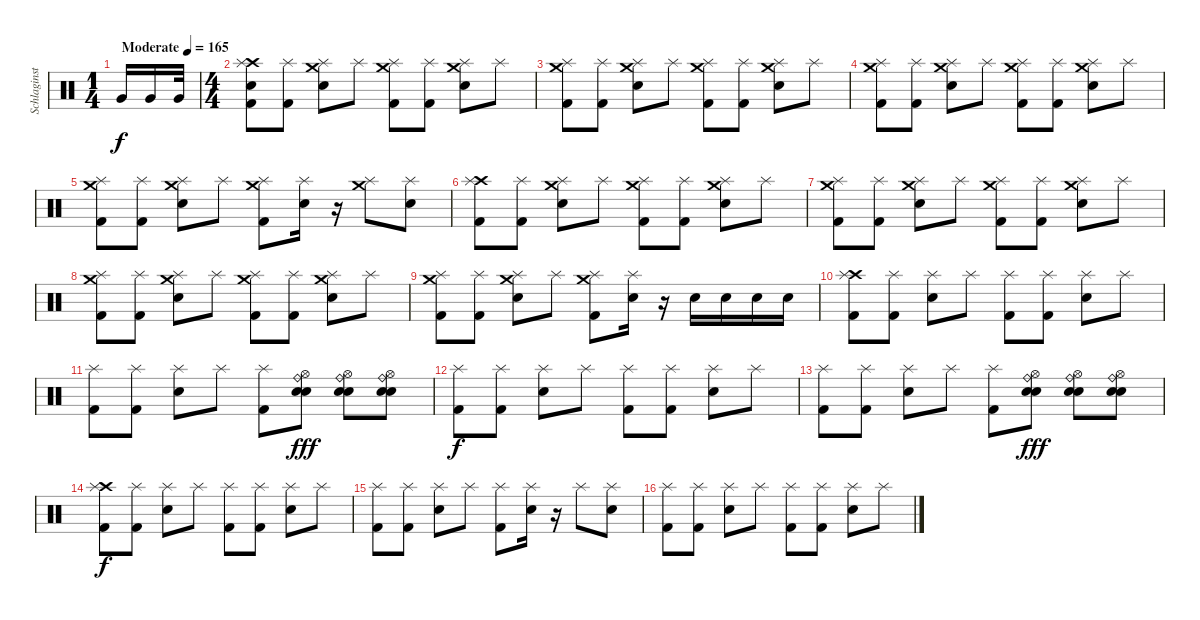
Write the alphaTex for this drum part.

\track ("Schlaginstrumente - Auswahl" "Schlaginst") {instrument percussion}
\staff {score}
\articulation defaults
\ts (1 4)
\tempo (165 "Moderate")
\clef neutral
\ks c "Very Low Tom (hit)".16{dy f} "Very Low Tom (hit)".16 "Very Low Tom (hit)".32
|
\ts (4 4)
("Crash high (hit)" "Splash (hit)" "Snare (hit)" "Kick (hit) 2").8 ("Splash (hit)" "Kick (hit) 2").8 ("Crash medium (hit)" "Splash (hit)" "Electric Snare (hit)").8 "Splash (hit)".8 ("Crash medium (hit)" "Splash (hit)" "Kick (hit) 2").8 ("Splash (hit)" "Kick (hit) 2").8 ("Crash medium (hit)" "Splash (hit)" "Electric Snare (hit)").8 "Splash (hit)".8 |
("Crash medium (hit)" "Splash (hit)" "Kick (hit) 2").8 ("Splash (hit)" "Kick (hit) 2").8 ("Crash medium (hit)" "Splash (hit)" "Electric Snare (hit)").8 "Splash (hit)".8 ("Crash medium (hit)" "Splash (hit)" "Kick (hit) 2").8 ("Splash (hit)" "Kick (hit) 2").8 ("Crash medium (hit)" "Splash (hit)" "Electric Snare (hit)").8 "Splash (hit)".8 |
("Crash medium (hit)" "Splash (hit)" "Kick (hit) 2").8 ("Splash (hit)" "Kick (hit) 2").8 ("Crash medium (hit)" "Splash (hit)" "Electric Snare (hit)").8 "Splash (hit)".8 ("Crash medium (hit)" "Splash (hit)" "Kick (hit) 2").8 ("Splash (hit)" "Kick (hit) 2").8 ("Crash medium (hit)" "Splash (hit)" "Electric Snare (hit)").8 "Splash (hit)".8 |
("Crash medium (hit)" "Splash (hit)" "Kick (hit) 2").8 ("Splash (hit)" "Kick (hit) 2").8 ("Crash medium (hit)" "Splash (hit)" "Electric Snare (hit)").8 "Splash (hit)".8 ("Crash medium (hit)" "Splash (hit)" "Kick (hit) 2").8 ("Splash (hit)" "Electric Snare (hit)").16 r.16 ("Crash medium (hit)" "Splash (hit)").8 ("Splash (hit)" "Electric Snare (hit)").8 |
("Crash high (hit)" "Splash (hit)" "Kick (hit) 2").8 ("Splash (hit)" "Kick (hit) 2").8 ("Crash medium (hit)" "Splash (hit)" "Electric Snare (hit)").8 "Splash (hit)".8 ("Crash medium (hit)" "Splash (hit)" "Kick (hit) 2").8 ("Splash (hit)" "Kick (hit) 2").8 ("Crash medium (hit)" "Splash (hit)" "Electric Snare (hit)").8 "Splash (hit)".8 |
("Crash medium (hit)" "Splash (hit)" "Kick (hit) 2").8 ("Splash (hit)" "Kick (hit) 2").8 ("Crash medium (hit)" "Splash (hit)" "Electric Snare (hit)").8 "Splash (hit)".8 ("Crash medium (hit)" "Splash (hit)" "Kick (hit) 2").8 ("Splash (hit)" "Kick (hit) 2").8 ("Crash medium (hit)" "Splash (hit)" "Electric Snare (hit)").8 "Splash (hit)".8 |
("Crash medium (hit)" "Splash (hit)" "Kick (hit) 2").8 ("Splash (hit)" "Kick (hit) 2").8 ("Crash medium (hit)" "Splash (hit)" "Electric Snare (hit)").8 "Splash (hit)".8 ("Crash medium (hit)" "Splash (hit)" "Kick (hit) 2").8 ("Splash (hit)" "Kick (hit) 2").8 ("Crash medium (hit)" "Splash (hit)" "Electric Snare (hit)").8 "Splash (hit)".8 |
("Crash medium (hit)" "Splash (hit)" "Kick (hit) 2").8 ("Splash (hit)" "Kick (hit) 2").8 ("Crash medium (hit)" "Splash (hit)" "Electric Snare (hit)").8 "Splash (hit)".8 ("Crash medium (hit)" "Splash (hit)" "Kick (hit) 2").8 ("Splash (hit)" "Electric Snare (hit)").16 r.16 "Electric Snare (hit)".16 "Electric Snare (hit)".16 "Electric Snare (hit)".16 "Electric Snare (hit)".16 |
("Crash high (hit)" "Splash (hit)" "Kick (hit) 2").8 ("Splash (hit)" "Kick (hit) 2").8 ("Splash (hit)" "Electric Snare (hit)").8 "Splash (hit)".8 ("Splash (hit)" "Kick (hit) 2").8 ("Splash (hit)" "Kick (hit) 2").8 ("Splash (hit)" "Electric Snare (hit)").8 "Splash (hit)".8 |
("Splash (hit)" "Kick (hit) 2").8 ("Splash (hit)" "Kick (hit) 2").8 ("Splash (hit)" "Electric Snare (hit)").8 "Splash (hit)".8 ("Splash (hit)" "Kick (hit) 2").8 ("Hi-Hat (open)" "Ride (bell)" "Hand Clap (hit)" "Electric Snare (hit)").8{dy fff} ("Hi-Hat (open)" "Ride (bell)" "Hand Clap (hit)" "Electric Snare (hit)").8 ("Hi-Hat (open)" "Ride (bell)" "Hand Clap (hit)" "Electric Snare (hit)").8 |
("Splash (hit)" "Kick (hit) 2").8{dy f} ("Splash (hit)" "Kick (hit) 2").8 ("Splash (hit)" "Electric Snare (hit)").8 "Splash (hit)".8 ("Splash (hit)" "Kick (hit) 2").8 ("Splash (hit)" "Kick (hit) 2").8 ("Splash (hit)" "Electric Snare (hit)").8 "Splash (hit)".8 |
("Splash (hit)" "Kick (hit) 2").8 ("Splash (hit)" "Kick (hit) 2").8 ("Splash (hit)" "Electric Snare (hit)").8 "Splash (hit)".8 ("Splash (hit)" "Kick (hit) 2").8 ("Hi-Hat (open)" "Ride (bell)" "Hand Clap (hit)" "Electric Snare (hit)").8{dy fff} ("Hi-Hat (open)" "Ride (bell)" "Hand Clap (hit)" "Electric Snare (hit)").8 ("Hi-Hat (open)" "Ride (bell)" "Hand Clap (hit)" "Electric Snare (hit)").8 |
("Crash high (hit)" "Splash (hit)" "Kick (hit) 2").8{dy f} ("Splash (hit)" "Kick (hit) 2").8 ("Splash (hit)" "Electric Snare (hit)").8 "Splash (hit)".8 ("Splash (hit)" "Kick (hit) 2").8 ("Splash (hit)" "Kick (hit) 2").8 ("Splash (hit)" "Electric Snare (hit)").8 "Splash (hit)".8 |
("Splash (hit)" "Kick (hit) 2").8 ("Splash (hit)" "Kick (hit) 2").8 ("Splash (hit)" "Electric Snare (hit)").8 "Splash (hit)".8 ("Splash (hit)" "Kick (hit) 2").8 ("Splash (hit)" "Electric Snare (hit)").16 r.16 "Splash (hit)".8 ("Splash (hit)" "Electric Snare (hit)").8 |
("Splash (hit)" "Kick (hit) 2").8 ("Splash (hit)" "Kick (hit) 2").8 ("Splash (hit)" "Electric Snare (hit)").8 "Splash (hit)".8 ("Splash (hit)" "Kick (hit) 2").8 ("Splash (hit)" "Kick (hit) 2").8 ("Splash (hit)" "Electric Snare (hit)").8 "Splash (hit)".8
